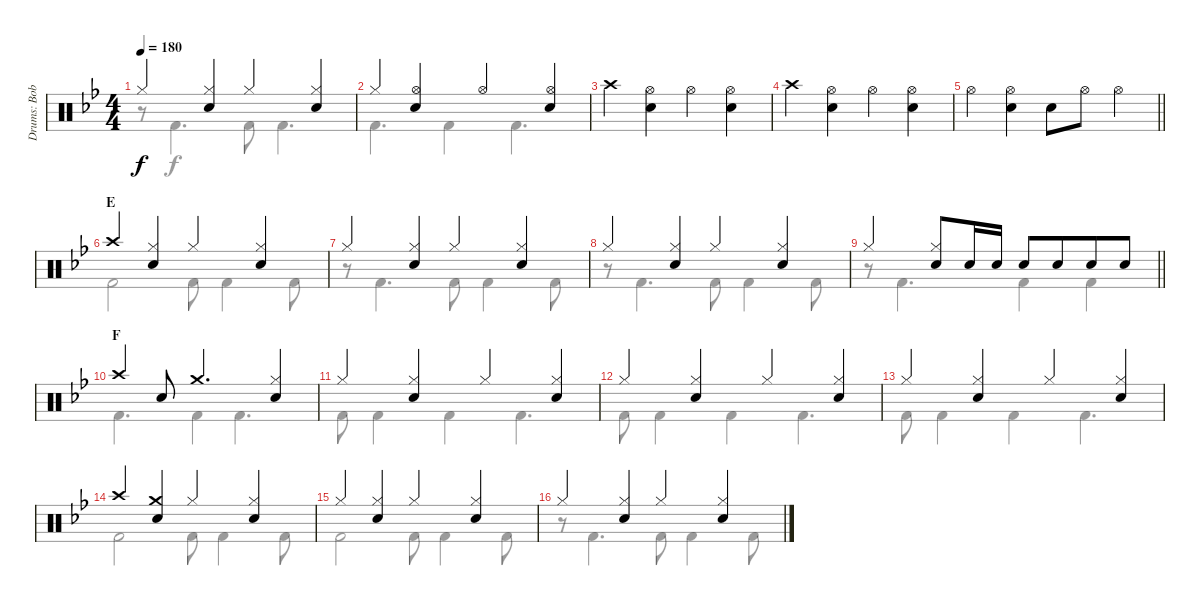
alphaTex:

\track ("Drums: Bobby" "Drums: Bob") {instrument percussion}
\staff {score}
\articulation defaults
\voice
\ts (4 4)
\tempo 180
\clef neutral
\ks bb "Hi-Hat (closed)".4{dy f}
("Hi-Hat (closed)" "Snare (hit) 2").4 "Hi-Hat (closed)".4 ("Hi-Hat (closed)" "Snare (hit) 2").4 |
"Hi-Hat (closed)".4 ("Hi-Hat (open)" "Snare (hit) 2").4 "Hi-Hat (open)".4 ("Hi-Hat (open)" "Snare (hit) 2").4 |
"Crash high (hit)".4 ("Hi-Hat (open)" "Snare (hit) 2").4 "Hi-Hat (open)".4 ("Hi-Hat (open)" "Snare (hit) 2").4 |
"Crash high (hit)".4 ("Hi-Hat (open)" "Snare (hit) 2").4 "Hi-Hat (open)".4 ("Hi-Hat (open)" "Snare (hit) 2").4 |
\barLineRight lightlight "Hi-Hat (open)".4
("Hi-Hat (open)" "Snare (hit) 2").4 "Snare (hit) 2".8 "Hi-Hat (open)".8 "Hi-Hat (open)".4 |
\section ("" "E")
"Crash high (hit)".4 ("Hi-Hat (closed)" "Snare (hit) 2").4 "Hi-Hat (closed)".4 ("Hi-Hat (closed)" "Snare (hit) 2").4 |
"Hi-Hat (closed)".4 ("Hi-Hat (closed)" "Snare (hit) 2").4 "Hi-Hat (closed)".4 ("Hi-Hat (closed)" "Snare (hit) 2").4 |
"Hi-Hat (closed)".4 ("Hi-Hat (closed)" "Snare (hit) 2").4 "Hi-Hat (closed)".4 ("Hi-Hat (closed)" "Snare (hit) 2").4 |
\barLineRight lightlight "Hi-Hat (closed)".4
("Hi-Hat (closed)" "Snare (hit) 2").8 "Snare (hit) 2".16 "Snare (hit) 2".16 "Snare (hit) 2".8 "Snare (hit) 2".8{beam merge} "Snare (hit) 2".8 "Snare (hit) 2".8 |
\section ("" "F")
"Crash high (hit)".4 "Snare (hit) 2".8 "Crash medium (hit)".4{d} ("Hi-Hat (closed)" "Snare (hit) 2").4 |
"Hi-Hat (closed)".4 ("Hi-Hat (closed)" "Snare (hit) 2").4 "Hi-Hat (closed)".4 ("Hi-Hat (closed)" "Snare (hit) 2").4 |
"Hi-Hat (closed)".4 ("Hi-Hat (closed)" "Snare (hit) 2").4 "Hi-Hat (closed)".4 ("Hi-Hat (closed)" "Snare (hit) 2").4 |
"Hi-Hat (closed)".4 ("Hi-Hat (closed)" "Snare (hit) 2").4 "Hi-Hat (closed)".4 ("Hi-Hat (closed)" "Snare (hit) 2").4 |
"Crash high (hit)".4 ("Crash medium (hit)" "Snare (hit) 2").4 "Hi-Hat (closed)".4 ("Hi-Hat (closed)" "Snare (hit) 2").4 |
"Hi-Hat (closed)".4 ("Hi-Hat (closed)" "Snare (hit) 2").4 "Hi-Hat (closed)".4 ("Hi-Hat (closed)" "Snare (hit) 2").4 |
"Hi-Hat (closed)".4 ("Hi-Hat (closed)" "Snare (hit) 2").4 "Hi-Hat (closed)".4 ("Hi-Hat (closed)" "Snare (hit) 2").4
\voice
\clef neutral
\ottava regular
\simile none
\ks bb
r.8{dy f} "Kick (hit) 2".4{d} "Kick (hit) 2".8 "Kick (hit) 2".4{d} |
"Kick (hit) 2".4{d} "Kick (hit) 2".4 "Kick (hit) 2".4{d} |
|
|
\barLineRight lightlight
|
"Kick (hit) 2".2 "Kick (hit) 2".8 "Kick (hit) 2".4 "Kick (hit) 2".8 |
r.8 "Kick (hit) 2".4{d} "Kick (hit) 2".8 "Kick (hit) 2".4 "Kick (hit) 2".8 |
r.8 "Kick (hit) 2".4{d} "Kick (hit) 2".8 "Kick (hit) 2".4 "Kick (hit) 2".8 |
\barLineRight lightlight
r.8 "Kick (hit) 2".4{d} "Kick (hit) 2".4 "Kick (hit) 2".4 |
"Kick (hit) 2".4{d} "Kick (hit) 2".4 "Kick (hit) 2".4{d} |
"Kick (hit) 2".8 "Kick (hit) 2".4 "Kick (hit) 2".4 "Kick (hit) 2".4{d} |
"Kick (hit) 2".8 "Kick (hit) 2".4 "Kick (hit) 2".4 "Kick (hit) 2".4{d} |
"Kick (hit) 2".8 "Kick (hit) 2".4 "Kick (hit) 2".4 "Kick (hit) 2".4{d} |
"Kick (hit) 2".2 "Kick (hit) 2".8 "Kick (hit) 2".4 "Kick (hit) 2".8 |
"Kick (hit) 2".2 "Kick (hit) 2".8 "Kick (hit) 2".4 "Kick (hit) 2".8 |
r.8 "Kick (hit) 2".4{d} "Kick (hit) 2".8 "Kick (hit) 2".4 "Kick (hit) 2".8
